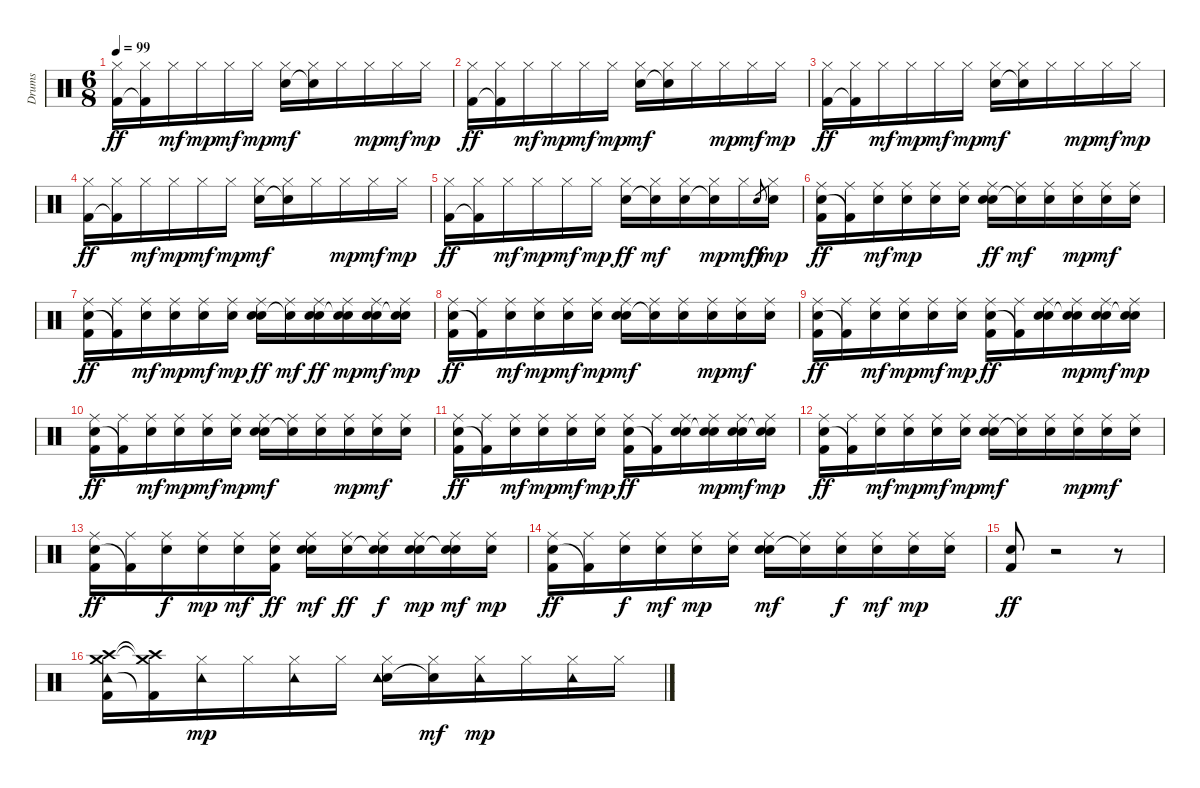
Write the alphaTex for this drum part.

\track ("Drums" "Drums") {instrument percussion}
\staff {score}
\articulation defaults
\ts (6 8)
\tempo 99
\clef neutral
\ks c
("Hi-Hat (closed)" "Kick (hit) 2").16{dy ff} ("Hi-Hat (closed)" "Kick (hit) 2"{t}).16 "Hi-Hat (closed)".16{dy mf} "Hi-Hat (closed)".16{dy mp} "Hi-Hat (closed)".16{dy mf} "Hi-Hat (closed)".16{dy mp} ("Hi-Hat (closed)" "Snare (hit) 2").16{dy mf} ("Hi-Hat (closed)" "Snare (hit) 2"{t}).16 "Hi-Hat (closed)".16 "Hi-Hat (closed)".16{dy mp} "Hi-Hat (closed)".16{dy mf} "Hi-Hat (closed)".16{dy mp} |
("Hi-Hat (closed)" "Kick (hit) 2").16{dy ff} ("Hi-Hat (closed)" "Kick (hit) 2"{t}).16 "Hi-Hat (closed)".16{dy mf} "Hi-Hat (closed)".16{dy mp} "Hi-Hat (closed)".16{dy mf} "Hi-Hat (closed)".16{dy mp} ("Hi-Hat (closed)" "Snare (hit) 2").16{dy mf} ("Hi-Hat (closed)" "Snare (hit) 2"{t}).16 "Hi-Hat (closed)".16 "Hi-Hat (closed)".16{dy mp} "Hi-Hat (closed)".16{dy mf} "Hi-Hat (closed)".16{dy mp} |
("Hi-Hat (closed)" "Kick (hit) 2").16{dy ff} ("Hi-Hat (closed)" "Kick (hit) 2"{t}).16 "Hi-Hat (closed)".16{dy mf} "Hi-Hat (closed)".16{dy mp} "Hi-Hat (closed)".16{dy mf} "Hi-Hat (closed)".16{dy mp} ("Hi-Hat (closed)" "Snare (hit) 2").16{dy mf} ("Hi-Hat (closed)" "Snare (hit) 2"{t}).16 "Hi-Hat (closed)".16 "Hi-Hat (closed)".16{dy mp} "Hi-Hat (closed)".16{dy mf} "Hi-Hat (closed)".16{dy mp} |
("Hi-Hat (closed)" "Kick (hit) 2").16{dy ff} ("Hi-Hat (closed)" "Kick (hit) 2"{t}).16 "Hi-Hat (closed)".16{dy mf} "Hi-Hat (closed)".16{dy mp} "Hi-Hat (closed)".16{dy mf} "Hi-Hat (closed)".16{dy mp} ("Hi-Hat (closed)" "Snare (hit) 2").16{dy mf} ("Hi-Hat (closed)" "Snare (hit) 2"{t}).16 "Hi-Hat (closed)".16 "Hi-Hat (closed)".16{dy mp} "Hi-Hat (closed)".16{dy mf} "Hi-Hat (closed)".16{dy mp} |
("Hi-Hat (closed)" "Kick (hit) 2").16{dy ff} ("Hi-Hat (closed)" "Kick (hit) 2"{t}).16 "Hi-Hat (closed)".16{dy mf} "Hi-Hat (closed)".16{dy mp} "Hi-Hat (closed)".16{dy mf} "Hi-Hat (closed)".16{dy mp} ("Hi-Hat (closed)" "Electric Snare (hit)").16{dy ff} ("Hi-Hat (closed)" "Snare (hit) 2"{t}).16{dy mf} ("Hi-Hat (closed)" "Electric Snare (hit)").16 ("Hi-Hat (closed)" "Snare (hit) 2"{t}).16{dy mp} "Hi-Hat (closed)".16{dy mf} "Electric Snare (hit)".8{gr dy ff} ("Hi-Hat (closed)" "Electric Snare (hit)").16{dy mp} |
("Ride (middle)" "Hand Clap (hit)" "Kick (hit) 2").16{dy ff} ("Ride (middle)" "Kick (hit) 2"{t}).16 ("Ride (middle)" "Hand Clap (hit)").16{dy mf} ("Ride (middle)" "Hand Clap (hit)").16{dy mp} ("Ride (middle)" "Hand Clap (hit)").16 ("Ride (middle)" "Hand Clap (hit)").16 ("Ride (middle)" "Electric Snare (hit)" "Hand Clap (hit)").16{dy ff} ("Ride (middle)" "Snare (hit) 2"{t}).16{dy mf} ("Ride (middle)" "Hand Clap (hit)").16 ("Ride (middle)" "Hand Clap (hit)").16{dy mp} ("Ride (middle)" "Hand Clap (hit)").16{dy mf} ("Ride (middle)" "Hand Clap (hit)").16 |
("Ride (middle)" "Hand Clap (hit)" "Kick (hit) 2").16{dy ff} ("Ride (middle)" "Kick (hit) 2"{t}).16 ("Ride (middle)" "Hand Clap (hit)").16{dy mf} ("Ride (middle)" "Hand Clap (hit)").16{dy mp} ("Ride (middle)" "Hand Clap (hit)").16{dy mf} ("Ride (middle)" "Hand Clap (hit)").16{dy mp} ("Ride (middle)" "Electric Snare (hit)" "Hand Clap (hit)").16{dy ff} ("Ride (middle)" "Snare (hit) 2"{t}).16{dy mf} ("Ride (middle)" "Electric Snare (hit)" "Hand Clap (hit)").16{dy ff} ("Ride (middle)" "Electric Snare (hit)"{t} "Hand Clap (hit)").16{dy mp} ("Ride (middle)" "Electric Snare (hit)" "Hand Clap (hit)").16{dy mf} ("Ride (middle)" "Electric Snare (hit)"{t} "Hand Clap (hit)").16{dy mp} |
("Ride (middle)" "Hand Clap (hit)" "Kick (hit) 2").16{dy ff} ("Ride (middle)" "Kick (hit) 2"{t}).16 ("Ride (middle)" "Hand Clap (hit)").16{dy mf} ("Ride (middle)" "Hand Clap (hit)").16{dy mp} ("Ride (middle)" "Hand Clap (hit)").16{dy mf} ("Ride (middle)" "Hand Clap (hit)").16{dy mp} ("Ride (middle)" "Electric Snare (hit)" "Hand Clap (hit)").16{dy mf} ("Ride (middle)" "Snare (hit) 2"{t}).16 ("Ride (middle)" "Hand Clap (hit)").16 ("Ride (middle)" "Hand Clap (hit)").16{dy mp} ("Ride (middle)" "Hand Clap (hit)").16{dy mf} ("Ride (middle)" "Hand Clap (hit)").16 |
("Ride (middle)" "Hand Clap (hit)" "Kick (hit) 2").16{dy ff} ("Ride (middle)" "Kick (hit) 2"{t}).16 ("Ride (middle)" "Hand Clap (hit)").16{dy mf} ("Ride (middle)" "Hand Clap (hit)").16{dy mp} ("Ride (middle)" "Hand Clap (hit)").16{dy mf} ("Ride (middle)" "Hand Clap (hit)").16{dy mp} ("Ride (middle)" "Hand Clap (hit)" "Kick (hit) 2").16{dy ff} ("Ride (middle)" "Kick (hit) 2"{t}).16 ("Ride (middle)" "Electric Snare (hit)" "Hand Clap (hit)").16 ("Ride (middle)" "Electric Snare (hit)"{t} "Hand Clap (hit)").16{dy mp} ("Ride (middle)" "Electric Snare (hit)" "Hand Clap (hit)").16{dy mf} ("Ride (middle)" "Electric Snare (hit)"{t} "Hand Clap (hit)").16{dy mp} |
("Ride (middle)" "Hand Clap (hit)" "Kick (hit) 2").16{dy ff} ("Ride (middle)" "Kick (hit) 2"{t}).16 ("Ride (middle)" "Hand Clap (hit)").16{dy mf} ("Ride (middle)" "Hand Clap (hit)").16{dy mp} ("Ride (middle)" "Hand Clap (hit)").16{dy mf} ("Ride (middle)" "Hand Clap (hit)").16{dy mp} ("Ride (middle)" "Electric Snare (hit)" "Hand Clap (hit)").16{dy mf} ("Ride (middle)" "Snare (hit) 2"{t}).16 ("Ride (middle)" "Hand Clap (hit)").16 ("Ride (middle)" "Hand Clap (hit)").16{dy mp} ("Ride (middle)" "Hand Clap (hit)").16{dy mf} ("Ride (middle)" "Hand Clap (hit)").16 |
("Ride (middle)" "Hand Clap (hit)" "Kick (hit) 2").16{dy ff} ("Ride (middle)" "Kick (hit) 2"{t}).16 ("Ride (middle)" "Hand Clap (hit)").16{dy mf} ("Ride (middle)" "Hand Clap (hit)").16{dy mp} ("Ride (middle)" "Hand Clap (hit)").16{dy mf} ("Ride (middle)" "Hand Clap (hit)").16{dy mp} ("Ride (middle)" "Hand Clap (hit)" "Kick (hit) 2").16{dy ff} ("Ride (middle)" "Kick (hit) 2"{t}).16 ("Ride (middle)" "Electric Snare (hit)" "Hand Clap (hit)").16 ("Ride (middle)" "Electric Snare (hit)"{t} "Hand Clap (hit)").16{dy mp} ("Ride (middle)" "Electric Snare (hit)" "Hand Clap (hit)").16{dy mf} ("Ride (middle)" "Electric Snare (hit)"{t} "Hand Clap (hit)").16{dy mp} |
("Ride (middle)" "Hand Clap (hit)" "Kick (hit) 2").16{dy ff} ("Ride (middle)" "Kick (hit) 2"{t}).16 ("Ride (middle)" "Hand Clap (hit)").16{dy mf} ("Ride (middle)" "Hand Clap (hit)").16{dy mp} ("Ride (middle)" "Hand Clap (hit)").16{dy mf} ("Ride (middle)" "Hand Clap (hit)").16{dy mp} ("Ride (middle)" "Snare (hit) 2" "Hand Clap (hit)").16{dy mf} ("Ride (middle)" "Snare (hit) 2"{t}).16 ("Ride (middle)" "Hand Clap (hit)").16 ("Ride (middle)" "Hand Clap (hit)").16{dy mp} ("Ride (middle)" "Hand Clap (hit)").16{dy mf} ("Ride (middle)" "Hand Clap (hit)").16 |
("Ride (middle)" "Hand Clap (hit)" "Kick (hit) 2").16{dy ff} ("Ride (middle)" "Kick (hit) 2"{t}).16 ("Ride (middle)" "Hand Clap (hit)").16{dy f} ("Ride (middle)" "Hand Clap (hit)").16{dy mp} ("Ride (middle)" "Hand Clap (hit)").16{dy mf} ("Ride (middle)" "Hand Clap (hit)" "Kick (hit) 2").16{dy ff} ("Ride (middle)" "Electric Snare (hit)" "Hand Clap (hit)").16{dy mf} ("Ride (middle)" "Electric Snare (hit)").16{dy ff} ("Ride (middle)" "Electric Snare (hit)"{t} "Hand Clap (hit)").16{dy f} ("Ride (middle)" "Electric Snare (hit)" "Hand Clap (hit)").16{dy mp} ("Ride (middle)" "Electric Snare (hit)"{t} "Hand Clap (hit)").16{dy mf} ("Ride (middle)" "Hand Clap (hit)").16{dy mp} |
("Ride (middle)" "Hand Clap (hit)" "Kick (hit) 2").16{dy ff} ("Ride (middle)" "Kick (hit) 2"{t}).16 ("Ride (middle)" "Hand Clap (hit)").16{dy f} ("Ride (middle)" "Hand Clap (hit)").16{dy mf} ("Ride (middle)" "Hand Clap (hit)").16{dy mp} ("Ride (middle)" "Hand Clap (hit)").16 ("Ride (middle)" "Snare (hit) 2" "Hand Clap (hit)").16{dy mf} ("Ride (middle)" "Snare (hit) 2"{t}).16 ("Ride (middle)" "Hand Clap (hit)").16{dy f} ("Ride (middle)" "Hand Clap (hit)").16{dy mf} ("Ride (middle)" "Hand Clap (hit)").16{dy mp} ("Ride (middle)" "Hand Clap (hit)").16 |
("Hand Clap (hit)" "Kick (hit) 2").8{dy ff} r.2 r.8 |
("Crash high (hit)" "Crash medium (hit)" "Tambourine (hit)" "Kick (hit) 2").16 ("Crash high (hit)"{t} "Crash medium (hit)"{t} "Kick (hit) 2"{t}).16 ("Hi-Hat (closed)" "Tambourine (hit)").16{dy mp} "Hi-Hat (closed)".16 ("Hi-Hat (closed)" "Tambourine (hit)").16 "Hi-Hat (closed)".16 ("Hi-Hat (closed)" "Snare (hit) 2" "Tambourine (hit)").16 ("Hi-Hat (closed)" "Snare (hit) 2"{t}).16{dy mf} ("Hi-Hat (closed)" "Tambourine (hit)").16{dy mp} "Hi-Hat (closed)".16 ("Hi-Hat (closed)" "Tambourine (hit)").16 "Hi-Hat (closed)".16
